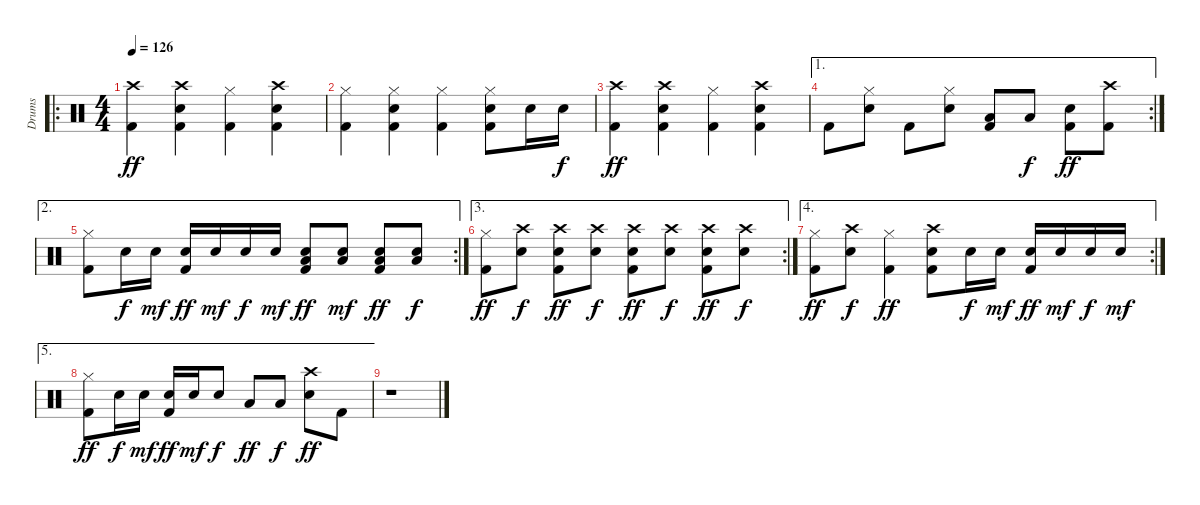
\track ("Drums" "Drums") {instrument percussion}
\staff {score}
\articulation defaults
\ro
\ts (4 4)
\tempo 126
\clef neutral
\ks c
("Crash high (hit)" "Kick (hit) 2").4{dy ff} ("Crash high (hit)" "Kick (hit) 2" "Snare (hit) 2").4 ("Hi-Hat (closed)" "Kick (hit) 2").4 ("Crash high (hit)" "Kick (hit) 2" "Snare (hit) 2").4 |
("Hi-Hat (closed)" "Kick (hit) 2").4 ("Hi-Hat (closed)" "Snare (hit) 2" "Kick (hit) 2").4 ("Hi-Hat (closed)" "Kick (hit) 2").4 ("Hi-Hat (closed)" "Snare (hit) 2" "Kick (hit) 2").8 "Snare (hit) 2".16 "Snare (hit) 2".16{dy f} |
("Crash high (hit)" "Kick (hit) 2").4{dy ff} ("Crash high (hit)" "Kick (hit) 2" "Snare (hit) 2").4 ("Hi-Hat (closed)" "Kick (hit) 2").4 ("Crash high (hit)" "Kick (hit) 2" "Snare (hit) 2").4 |
\ae 1
\rc 2 "Kick (hit) 2".8
("Hi-Hat (closed)" "Snare (hit) 2").8 "Kick (hit) 2".8 ("Hi-Hat (closed)" "Snare (hit) 2").8 ("Low Tom (hit)" "Kick (hit) 2").8 "Low Floor Tom (hit)".8{dy f} ("Snare (hit) 2" "Kick (hit) 2").8{dy ff} ("Crash high (hit)" "Kick (hit) 2").8 |
\ae 2
\rc 2
("Hi-Hat (closed)" "Kick (hit) 2").8 "Snare (hit) 2".16{dy f} "Snare (hit) 2".16{dy mf} ("Snare (hit) 2" "Kick (hit) 2").16{dy ff} "Snare (hit) 2".16{dy mf} "Snare (hit) 2".16{dy f} "Snare (hit) 2".16{dy mf} ("Low Floor Tom (hit)" "Snare (hit) 2" "Kick (hit) 2").8{dy ff} ("Snare (hit) 2" "Low Floor Tom (hit)").8{dy mf} ("Low Floor Tom (hit)" "Snare (hit) 2" "Kick (hit) 2").8{dy ff} ("Snare (hit) 2" "Low Floor Tom (hit)").8{dy f} |
\ae 3
\rc 2
("Hi-Hat (closed)" "Kick (hit) 2").8{dy ff} ("Crash high (hit)" "Snare (hit) 2").8{dy f} ("Crash high (hit)" "Snare (hit) 2" "Kick (hit) 2").8{dy ff} ("Crash high (hit)" "Snare (hit) 2").8{dy f} ("Crash high (hit)" "Snare (hit) 2" "Kick (hit) 2").8{dy ff} ("Crash high (hit)" "Snare (hit) 2").8{dy f} ("Crash high (hit)" "Snare (hit) 2" "Kick (hit) 2").8{dy ff} ("Crash high (hit)" "Snare (hit) 2").8{dy f} |
\ae 4
\rc 2
("Hi-Hat (closed)" "Kick (hit) 2").8{dy ff} ("Crash high (hit)" "Snare (hit) 2").8{dy f} ("Hi-Hat (closed)" "Kick (hit) 2").4{dy ff} ("Crash high (hit)" "Snare (hit) 2" "Kick (hit) 2").8 "Snare (hit) 2".16{dy f} "Snare (hit) 2".16{dy mf} ("Snare (hit) 2" "Kick (hit) 2").16{dy ff} "Snare (hit) 2".16{dy mf} "Snare (hit) 2".16{dy f} "Snare (hit) 2".16{dy mf} |
\ae 5
("Hi-Hat (closed)" "Kick (hit) 2").8{dy ff} "Snare (hit) 2".16{dy f} "Snare (hit) 2".16{dy mf} ("Snare (hit) 2" "Kick (hit) 2").16{dy ff} "Snare (hit) 2".16{dy mf} "Snare (hit) 2".8{dy f} "Low Tom (hit)".8{dy ff} "Low Floor Tom (hit)".8{dy f} ("Crash high (hit)" "Snare (hit) 2").8{dy ff} "Kick (hit) 2".8 |
r.1
